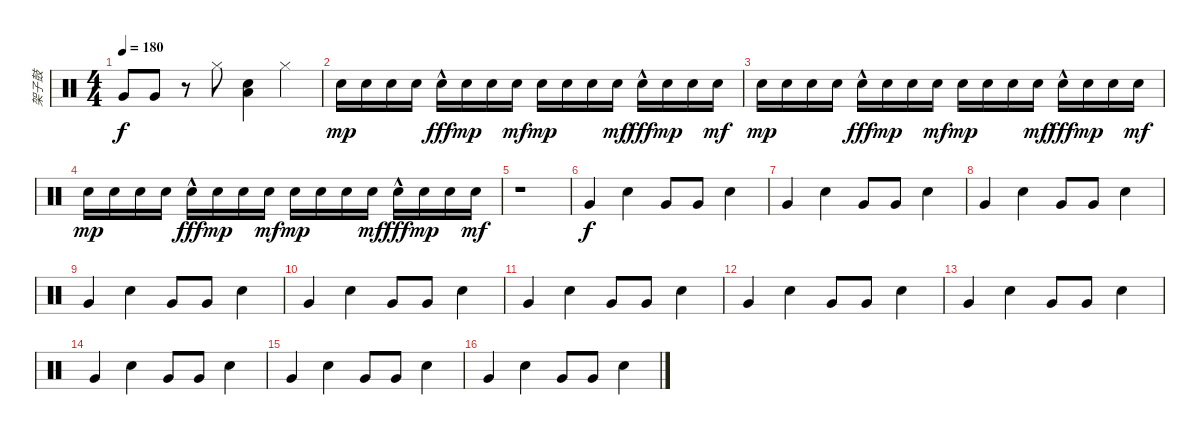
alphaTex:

\track ("架子鼓" "架子鼓") {instrument percussion}
\staff {score}
\articulation defaults
\ts (4 4)
\tempo 180
\clef neutral
\ks c "Very Low Tom (hit)".8{dy f} "Very Low Tom (hit)".8
r.8 "Hi-Hat (closed)".8 ("Electric Snare (hit)" "Low Tom (hit)").4 "Hi-Hat (closed)".4 |
"Snare (hit) 2".16{dy mp} "Snare (hit) 2".16 "Snare (hit) 2".16 "Snare (hit) 2".16 "Electric Snare (hit)"{hac}.16{dy fff} "Snare (hit) 2".16{dy mp} "Snare (hit) 2".16 "Snare (hit) 2".16{dy mf} "Snare (hit) 2".16{dy mp} "Snare (hit) 2".16 "Snare (hit) 2".16 "Snare (hit) 2".16{dy mf} "Electric Snare (hit)"{hac}.16{dy fff} "Snare (hit) 2".16{dy mp} "Snare (hit) 2".16 "Snare (hit) 2".16{dy mf} |
"Snare (hit) 2".16{dy mp} "Snare (hit) 2".16 "Snare (hit) 2".16 "Snare (hit) 2".16 "Electric Snare (hit)"{hac}.16{dy fff} "Snare (hit) 2".16{dy mp} "Snare (hit) 2".16 "Snare (hit) 2".16{dy mf} "Snare (hit) 2".16{dy mp} "Snare (hit) 2".16 "Snare (hit) 2".16 "Snare (hit) 2".16{dy mf} "Electric Snare (hit)"{hac}.16{dy fff} "Snare (hit) 2".16{dy mp} "Snare (hit) 2".16 "Snare (hit) 2".16{dy mf} |
"Snare (hit) 2".16{dy mp} "Snare (hit) 2".16 "Snare (hit) 2".16 "Snare (hit) 2".16 "Electric Snare (hit)"{hac}.16{dy fff} "Snare (hit) 2".16{dy mp} "Snare (hit) 2".16 "Snare (hit) 2".16{dy mf} "Snare (hit) 2".16{dy mp} "Snare (hit) 2".16 "Snare (hit) 2".16 "Snare (hit) 2".16{dy mf} "Electric Snare (hit)"{hac}.16{dy fff} "Snare (hit) 2".16{dy mp} "Snare (hit) 2".16 "Snare (hit) 2".16{dy mf} |
r.1 |
"Very Low Tom (hit)".4{dy f} "Electric Snare (hit)".4 "Very Low Tom (hit)".8 "Very Low Tom (hit)".8 "Electric Snare (hit)".4 |
"Very Low Tom (hit)".4 "Electric Snare (hit)".4 "Very Low Tom (hit)".8 "Very Low Tom (hit)".8 "Electric Snare (hit)".4 |
"Very Low Tom (hit)".4 "Electric Snare (hit)".4 "Very Low Tom (hit)".8 "Very Low Tom (hit)".8 "Electric Snare (hit)".4 |
"Very Low Tom (hit)".4 "Electric Snare (hit)".4 "Very Low Tom (hit)".8 "Very Low Tom (hit)".8 "Electric Snare (hit)".4 |
"Very Low Tom (hit)".4 "Electric Snare (hit)".4 "Very Low Tom (hit)".8 "Very Low Tom (hit)".8 "Electric Snare (hit)".4 |
"Very Low Tom (hit)".4 "Electric Snare (hit)".4 "Very Low Tom (hit)".8 "Very Low Tom (hit)".8 "Electric Snare (hit)".4 |
"Very Low Tom (hit)".4 "Electric Snare (hit)".4 "Very Low Tom (hit)".8 "Very Low Tom (hit)".8 "Electric Snare (hit)".4 |
"Very Low Tom (hit)".4 "Electric Snare (hit)".4 "Very Low Tom (hit)".8 "Very Low Tom (hit)".8 "Electric Snare (hit)".4 |
"Very Low Tom (hit)".4 "Electric Snare (hit)".4 "Very Low Tom (hit)".8 "Very Low Tom (hit)".8 "Electric Snare (hit)".4 |
"Very Low Tom (hit)".4 "Electric Snare (hit)".4 "Very Low Tom (hit)".8 "Very Low Tom (hit)".8 "Electric Snare (hit)".4 |
"Very Low Tom (hit)".4 "Electric Snare (hit)".4 "Very Low Tom (hit)".8 "Very Low Tom (hit)".8 "Electric Snare (hit)".4
